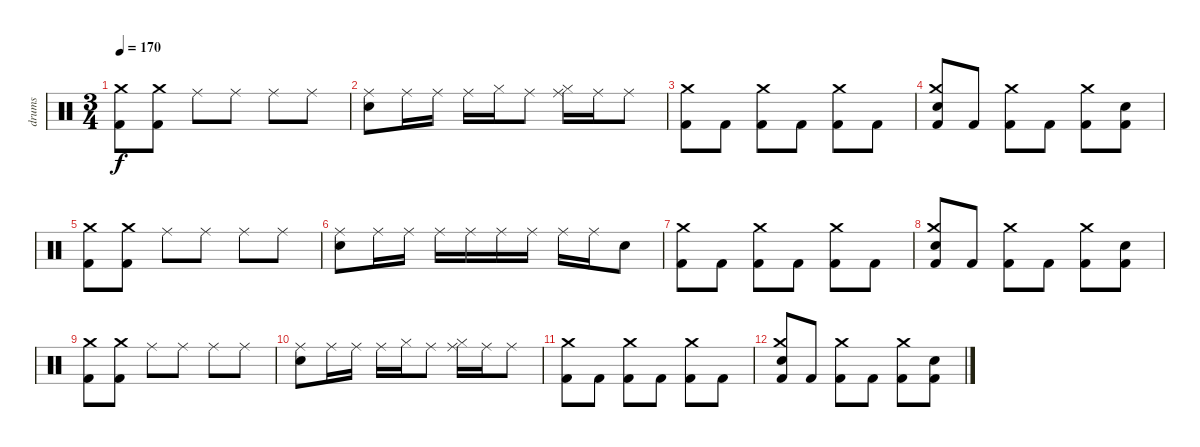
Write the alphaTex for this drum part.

\track ("drums" "drums") {instrument percussion}
\staff {score}
\articulation defaults
\ts (3 4)
\tempo 170
\clef neutral
\ks c
("Kick (hit) 2" "Crash medium (hit)").8{dy f} ("Kick (hit) 2" "Crash medium (hit)").8 "Ride (middle)".8 "Ride (middle)".8 "Ride (middle)".8 "Ride (middle)".8 |
("Snare (hit) 2" "Ride (middle)").8 "Ride (middle)".16 "Ride (middle)".16 "Ride (middle)".16 "Hi-Hat (closed)".16 "Ride (middle)".8 ("Ride (middle)" "Hi-Hat (closed)").16 "Ride (middle)".16 "Ride (middle)".8 |
("Kick (hit) 2" "Crash medium (hit)").8 "Kick (hit) 2".8 ("Kick (hit) 2" "Crash medium (hit)").8 "Kick (hit) 2".8 ("Kick (hit) 2" "Crash medium (hit)").8 "Kick (hit) 2".8 |
("Kick (hit) 2" "Snare (hit) 2" "Crash medium (hit)").8 "Kick (hit) 2".8 ("Kick (hit) 2" "Crash medium (hit)").8 "Kick (hit) 2".8 ("Kick (hit) 2" "Crash medium (hit)").8 ("Kick (hit) 2" "Snare (hit) 2").8 |
("Kick (hit) 2" "Crash medium (hit)").8 ("Kick (hit) 2" "Crash medium (hit)").8 "Ride (middle)".8 "Ride (middle)".8 "Ride (middle)".8 "Ride (middle)".8 |
("Snare (hit) 2" "Ride (middle)").8 "Ride (middle)".16 "Ride (middle)".16 "Ride (middle)".16 "Ride (middle)".16 "Ride (middle)".16 "Ride (middle)".16 "Ride (middle)".16 "Ride (middle)".16 "Snare (hit) 2".8 |
("Kick (hit) 2" "Crash medium (hit)").8 "Kick (hit) 2".8 ("Kick (hit) 2" "Crash medium (hit)").8 "Kick (hit) 2".8 ("Kick (hit) 2" "Crash medium (hit)").8 "Kick (hit) 2".8 |
("Kick (hit) 2" "Snare (hit) 2" "Crash medium (hit)").8 "Kick (hit) 2".8 ("Kick (hit) 2" "Crash medium (hit)").8 "Kick (hit) 2".8 ("Kick (hit) 2" "Crash medium (hit)").8 ("Kick (hit) 2" "Snare (hit) 2").8 |
("Kick (hit) 2" "Crash medium (hit)").8 ("Kick (hit) 2" "Crash medium (hit)").8 "Ride (middle)".8 "Ride (middle)".8 "Ride (middle)".8 "Ride (middle)".8 |
("Snare (hit) 2" "Ride (middle)").8 "Ride (middle)".16 "Ride (middle)".16 "Ride (middle)".16 "Hi-Hat (closed)".16 "Ride (middle)".8 ("Ride (middle)" "Hi-Hat (closed)").16 "Ride (middle)".16 "Ride (middle)".8 |
("Kick (hit) 2" "Crash medium (hit)").8 "Kick (hit) 2".8 ("Kick (hit) 2" "Crash medium (hit)").8 "Kick (hit) 2".8 ("Kick (hit) 2" "Crash medium (hit)").8 "Kick (hit) 2".8 |
("Kick (hit) 2" "Snare (hit) 2" "Crash medium (hit)").8 "Kick (hit) 2".8 ("Kick (hit) 2" "Crash medium (hit)").8 "Kick (hit) 2".8 ("Kick (hit) 2" "Crash medium (hit)").8 ("Kick (hit) 2" "Snare (hit) 2").8
